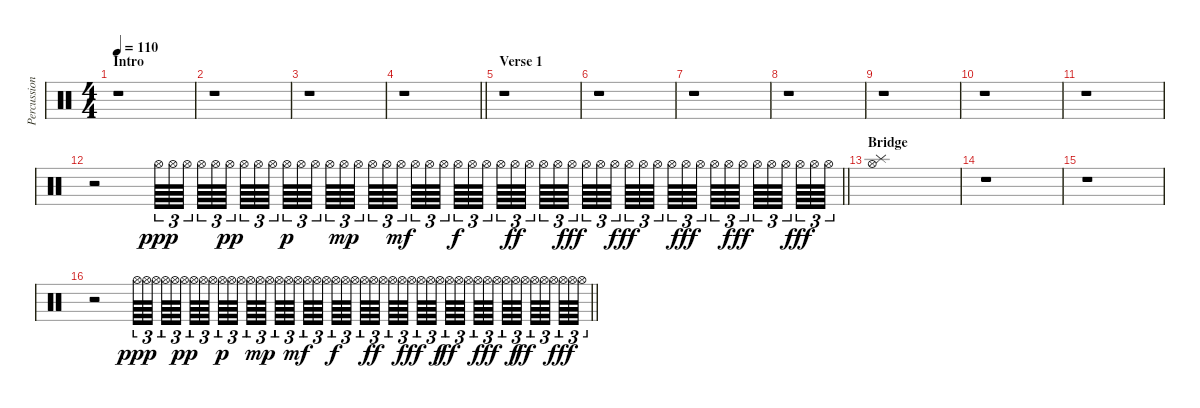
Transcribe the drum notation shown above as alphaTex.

\track ("Percussion" "Percussion") {instrument percussion}
\staff {score}
\articulation defaults
\ts (4 4)
\section ("" "Intro")
\tempo 110
\clef neutral
\ks c
r.1{dy ppp} |
r.1 |
r.1 |
\barLineRight lightlight
r.1 |
\section ("" "Verse 1")
r.1 |
r.1 |
r.1 |
r.1 |
r.1 |
r.1 |
r.1 |
\barLineRight lightlight
r.2 "Hi-Hat (open)".64{tu (3 2) volume 14} "Hi-Hat (open)".64{tu (3 2)} "Hi-Hat (open)".64{tu (3 2)} "Hi-Hat (open)".64{tu (3 2)} "Hi-Hat (open)".64{tu (3 2)} "Hi-Hat (open)".64{tu (3 2) dy pp} "Hi-Hat (open)".64{tu (3 2)} "Hi-Hat (open)".64{tu (3 2)} "Hi-Hat (open)".64{tu (3 2)} "Hi-Hat (open)".64{tu (3 2) dy p} "Hi-Hat (open)".64{tu (3 2)} "Hi-Hat (open)".64{tu (3 2)} "Hi-Hat (open)".64{tu (3 2)} "Hi-Hat (open)".64{tu (3 2) dy mp} "Hi-Hat (open)".64{tu (3 2)} "Hi-Hat (open)".64{tu (3 2)} "Hi-Hat (open)".64{tu (3 2)} "Hi-Hat (open)".64{tu (3 2) dy mf} "Hi-Hat (open)".64{tu (3 2)} "Hi-Hat (open)".64{tu (3 2)} "Hi-Hat (open)".64{tu (3 2)} "Hi-Hat (open)".64{tu (3 2) dy f} "Hi-Hat (open)".64{tu (3 2)} "Hi-Hat (open)".64{tu (3 2)} "Hi-Hat (open)".64{tu (3 2)} "Hi-Hat (open)".64{tu (3 2) dy ff} "Hi-Hat (open)".64{tu (3 2)} "Hi-Hat (open)".64{tu (3 2)} "Hi-Hat (open)".64{tu (3 2)} "Hi-Hat (open)".64{tu (3 2) dy fff} "Hi-Hat (open)".64{tu (3 2)} "Hi-Hat (open)".64{tu (3 2)} "Hi-Hat (open)".64{tu (3 2) dy f} "Hi-Hat (open)".64{tu (3 2) dy ff} "Hi-Hat (open)".64{tu (3 2)} "Hi-Hat (open)".64{tu (3 2)} "Hi-Hat (open)".64{tu (3 2)} "Hi-Hat (open)".64{tu (3 2) dy fff} "Hi-Hat (open)".64{tu (3 2)} "Hi-Hat (open)".64{tu (3 2)} "Hi-Hat (open)".64{tu (3 2) dy f} "Hi-Hat (open)".64{tu (3 2) dy ff} "Hi-Hat (open)".64{tu (3 2)} "Hi-Hat (open)".64{tu (3 2)} "Hi-Hat (open)".64{tu (3 2)} "Hi-Hat (open)".64{tu (3 2) dy fff} "Hi-Hat (open)".64{tu (3 2)} "Hi-Hat (open)".64{tu (3 2)} |
\section ("" "Bridge")
("Hi-Hat (open)" "Splash (hit)").1 |
r.1 |
r.1 |
\barLineRight lightlight
r.2 "Hi-Hat (open)".64{tu (3 2) dy ppp volume 14} "Hi-Hat (open)".64{tu (3 2)} "Hi-Hat (open)".64{tu (3 2)} "Hi-Hat (open)".64{tu (3 2)} "Hi-Hat (open)".64{tu (3 2)} "Hi-Hat (open)".64{tu (3 2) dy pp} "Hi-Hat (open)".64{tu (3 2)} "Hi-Hat (open)".64{tu (3 2)} "Hi-Hat (open)".64{tu (3 2)} "Hi-Hat (open)".64{tu (3 2) dy p} "Hi-Hat (open)".64{tu (3 2)} "Hi-Hat (open)".64{tu (3 2)} "Hi-Hat (open)".64{tu (3 2)} "Hi-Hat (open)".64{tu (3 2) dy mp} "Hi-Hat (open)".64{tu (3 2)} "Hi-Hat (open)".64{tu (3 2)} "Hi-Hat (open)".64{tu (3 2)} "Hi-Hat (open)".64{tu (3 2) dy mf} "Hi-Hat (open)".64{tu (3 2)} "Hi-Hat (open)".64{tu (3 2)} "Hi-Hat (open)".64{tu (3 2)} "Hi-Hat (open)".64{tu (3 2) dy f} "Hi-Hat (open)".64{tu (3 2)} "Hi-Hat (open)".64{tu (3 2)} "Hi-Hat (open)".64{tu (3 2)} "Hi-Hat (open)".64{tu (3 2) dy ff} "Hi-Hat (open)".64{tu (3 2)} "Hi-Hat (open)".64{tu (3 2)} "Hi-Hat (open)".64{tu (3 2)} "Hi-Hat (open)".64{tu (3 2) dy fff} "Hi-Hat (open)".64{tu (3 2)} "Hi-Hat (open)".64{tu (3 2)} "Hi-Hat (open)".64{tu (3 2) dy f} "Hi-Hat (open)".64{tu (3 2) dy ff} "Hi-Hat (open)".64{tu (3 2)} "Hi-Hat (open)".64{tu (3 2)} "Hi-Hat (open)".64{tu (3 2)} "Hi-Hat (open)".64{tu (3 2) dy fff} "Hi-Hat (open)".64{tu (3 2)} "Hi-Hat (open)".64{tu (3 2)} "Hi-Hat (open)".64{tu (3 2) dy f} "Hi-Hat (open)".64{tu (3 2) dy ff} "Hi-Hat (open)".64{tu (3 2)} "Hi-Hat (open)".64{tu (3 2)} "Hi-Hat (open)".64{tu (3 2)} "Hi-Hat (open)".64{tu (3 2) dy fff} "Hi-Hat (open)".64{tu (3 2)} "Hi-Hat (open)".64{tu (3 2)}
